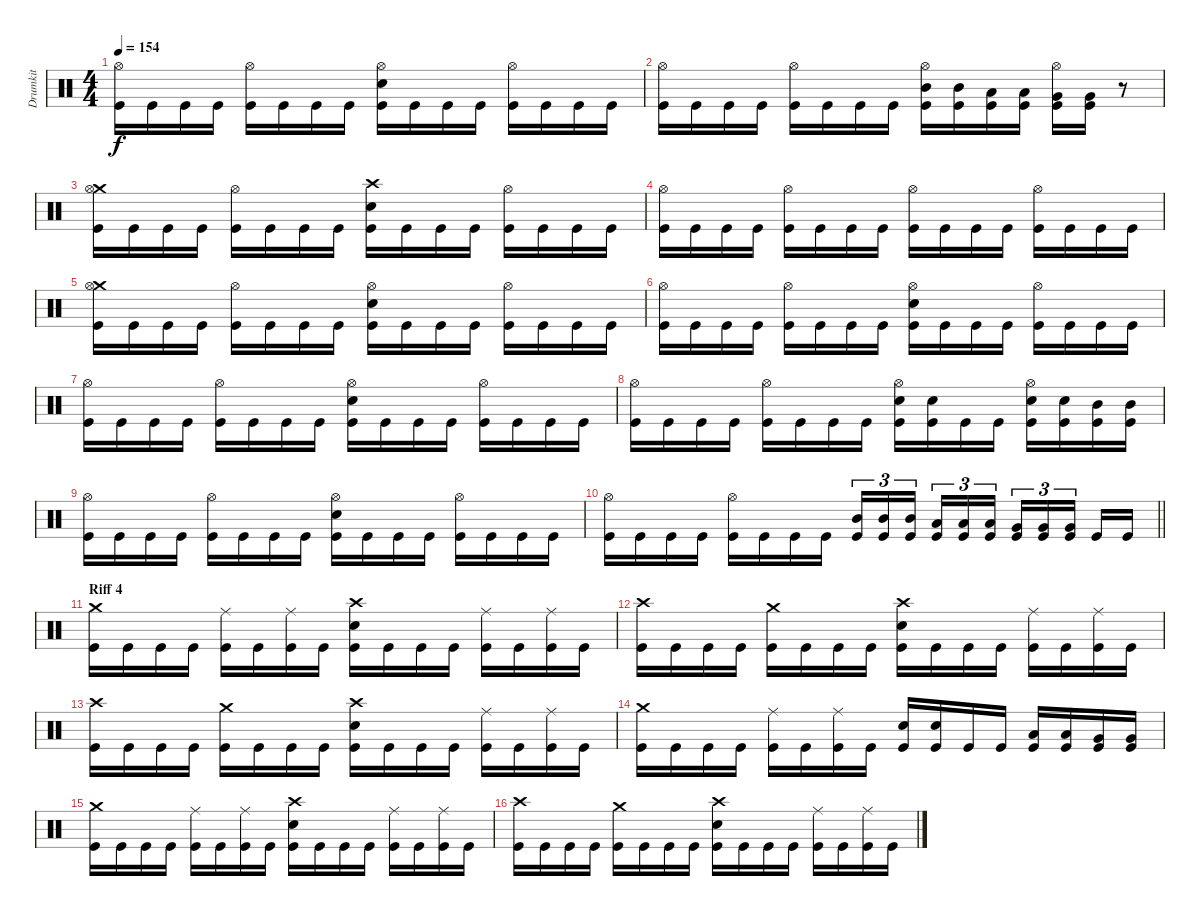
\track ("Drumkit" "Drumkit") {mute instrument percussion}
\staff {score}
\articulation defaults
\ts (4 4)
\tempo 154
\clef neutral
\ks c
("Hi-Hat (open)" "Kick (hit)").16{dy f} "Kick (hit)".16 "Kick (hit)".16 "Kick (hit)".16 ("Hi-Hat (open)" "Kick (hit)").16 "Kick (hit)".16 "Kick (hit)".16 "Kick (hit)".16 ("Hi-Hat (open)" "Snare (hit) 2" "Kick (hit)").16 "Kick (hit)".16 "Kick (hit)".16 "Kick (hit)".16 ("Hi-Hat (open)" "Kick (hit)").16 "Kick (hit)".16 "Kick (hit)".16 "Kick (hit)".16 |
("Hi-Hat (open)" "Kick (hit)").16 "Kick (hit)".16 "Kick (hit)".16 "Kick (hit)".16 ("Hi-Hat (open)" "Kick (hit)").16 "Kick (hit)".16 "Kick (hit)".16 "Kick (hit)".16 ("Hi-Hat (open)" "Mid Tom (hit)" "Kick (hit)").16 ("Mid Tom (hit)" "Kick (hit)").16 ("Low Tom (hit)" "Kick (hit)").16 ("Low Tom (hit)" "Kick (hit)").16 ("Hi-Hat (open)" "Very Low Tom (hit)" "Kick (hit)").16 ("Very Low Tom (hit)" "Kick (hit)").16 r.8 |
("Crash medium (hit)" "Hi-Hat (open)" "Kick (hit)").16 "Kick (hit)".16 "Kick (hit)".16 "Kick (hit)".16 ("Hi-Hat (open)" "Kick (hit)").16 "Kick (hit)".16 "Kick (hit)".16 "Kick (hit)".16 ("Crash high (hit)" "Snare (hit) 2" "Kick (hit)").16 "Kick (hit)".16 "Kick (hit)".16 "Kick (hit)".16 ("Hi-Hat (open)" "Kick (hit)").16 "Kick (hit)".16 "Kick (hit)".16 "Kick (hit)".16 |
("Hi-Hat (open)" "Kick (hit)").16 "Kick (hit)".16 "Kick (hit)".16 "Kick (hit)".16 ("Hi-Hat (open)" "Kick (hit)").16 "Kick (hit)".16 "Kick (hit)".16 "Kick (hit)".16 ("Hi-Hat (open)" "Kick (hit)").16 "Kick (hit)".16 "Kick (hit)".16 "Kick (hit)".16 ("Hi-Hat (open)" "Kick (hit)").16 "Kick (hit)".16 "Kick (hit)".16 "Kick (hit)".16 |
("Crash medium (hit)" "Hi-Hat (open)" "Kick (hit)").16 "Kick (hit)".16 "Kick (hit)".16 "Kick (hit)".16 ("Hi-Hat (open)" "Kick (hit)").16 "Kick (hit)".16 "Kick (hit)".16 "Kick (hit)".16 ("Hi-Hat (open)" "Snare (hit) 2" "Kick (hit)").16 "Kick (hit)".16 "Kick (hit)".16 "Kick (hit)".16 ("Hi-Hat (open)" "Kick (hit)").16 "Kick (hit)".16 "Kick (hit)".16 "Kick (hit)".16 |
("Hi-Hat (open)" "Kick (hit)").16 "Kick (hit)".16 "Kick (hit)".16 "Kick (hit)".16 ("Hi-Hat (open)" "Kick (hit)").16 "Kick (hit)".16 "Kick (hit)".16 "Kick (hit)".16 ("Hi-Hat (open)" "Snare (hit) 2" "Kick (hit)").16 "Kick (hit)".16 "Kick (hit)".16 "Kick (hit)".16 ("Hi-Hat (open)" "Kick (hit)").16 "Kick (hit)".16 "Kick (hit)".16 "Kick (hit)".16 |
("Hi-Hat (open)" "Kick (hit)").16 "Kick (hit)".16 "Kick (hit)".16 "Kick (hit)".16 ("Hi-Hat (open)" "Kick (hit)").16 "Kick (hit)".16 "Kick (hit)".16 "Kick (hit)".16 ("Hi-Hat (open)" "Snare (hit) 2" "Kick (hit)").16 "Kick (hit)".16 "Kick (hit)".16 "Kick (hit)".16 ("Hi-Hat (open)" "Kick (hit)").16 "Kick (hit)".16 "Kick (hit)".16 "Kick (hit)".16 |
("Hi-Hat (open)" "Kick (hit)").16 "Kick (hit)".16 "Kick (hit)".16 "Kick (hit)".16 ("Hi-Hat (open)" "Kick (hit)").16 "Kick (hit)".16 "Kick (hit)".16 "Kick (hit)".16 ("Hi-Hat (open)" "Snare (hit) 2" "Kick (hit)").16 ("Snare (hit) 2" "Kick (hit)").16 "Kick (hit)".16 "Kick (hit)".16 ("Hi-Hat (open)" "Snare (hit) 2" "Kick (hit)").16 ("Snare (hit) 2" "Kick (hit)").16 ("Mid Tom (hit)" "Kick (hit)").16 ("Mid Tom (hit)" "Kick (hit)").16 |
("Hi-Hat (open)" "Kick (hit)").16 "Kick (hit)".16 "Kick (hit)".16 "Kick (hit)".16 ("Hi-Hat (open)" "Kick (hit)").16 "Kick (hit)".16 "Kick (hit)".16 "Kick (hit)".16 ("Hi-Hat (open)" "Snare (hit) 2" "Kick (hit)").16 "Kick (hit)".16 "Kick (hit)".16 "Kick (hit)".16 ("Hi-Hat (open)" "Kick (hit)").16 "Kick (hit)".16 "Kick (hit)".16 "Kick (hit)".16 |
\barLineRight lightlight
("Hi-Hat (open)" "Kick (hit)").16 "Kick (hit)".16 "Kick (hit)".16 "Kick (hit)".16 ("Hi-Hat (open)" "Kick (hit)").16 "Kick (hit)".16 "Kick (hit)".16 "Kick (hit)".16 ("Mid Tom (hit)" "Kick (hit)").16{tu (3 2)} ("Mid Tom (hit)" "Kick (hit)").16{tu (3 2)} ("Mid Tom (hit)" "Kick (hit)").16{tu (3 2)} ("Low Tom (hit)" "Kick (hit)").16{tu (3 2)} ("Low Tom (hit)" "Kick (hit)").16{tu (3 2)} ("Low Tom (hit)" "Kick (hit)").16{tu (3 2)} ("Very Low Tom (hit)" "Kick (hit)").16{tu (3 2)} ("Very Low Tom (hit)" "Kick (hit)").16{tu (3 2)} ("Very Low Tom (hit)" "Kick (hit)").16{tu (3 2)} "Kick (hit)".16 "Kick (hit)".16 |
\section ("" "Riff 4")
("Crash medium (hit)" "Kick (hit)").16 "Kick (hit)".16 "Kick (hit)".16 "Kick (hit)".16 ("Ride (middle)" "Kick (hit)").16 "Kick (hit)".16 ("Ride (middle)" "Kick (hit)").16 "Kick (hit)".16 ("Crash high (hit)" "Snare (hit) 2" "Kick (hit)").16 "Kick (hit)".16 "Kick (hit)".16 "Kick (hit)".16 ("Ride (middle)" "Kick (hit)").16 "Kick (hit)".16 ("Ride (middle)" "Kick (hit)").16 "Kick (hit)".16 |
("Crash high (hit)" "Kick (hit)").16 "Kick (hit)".16 "Kick (hit)".16 "Kick (hit)".16 ("Crash medium (hit)" "Kick (hit)").16 "Kick (hit)".16 "Kick (hit)".16 "Kick (hit)".16 ("Crash high (hit)" "Snare (hit) 2" "Kick (hit)").16 "Kick (hit)".16 "Kick (hit)".16 "Kick (hit)".16 ("Ride (middle)" "Kick (hit)").16 "Kick (hit)".16 ("Ride (middle)" "Kick (hit)").16 "Kick (hit)".16 |
("Crash high (hit)" "Kick (hit)").16 "Kick (hit)".16 "Kick (hit)".16 "Kick (hit)".16 ("Crash medium (hit)" "Kick (hit)").16 "Kick (hit)".16 "Kick (hit)".16 "Kick (hit)".16 ("Crash high (hit)" "Snare (hit) 2" "Kick (hit)").16 "Kick (hit)".16 "Kick (hit)".16 "Kick (hit)".16 ("Ride (middle)" "Kick (hit)").16 "Kick (hit)".16 ("Ride (middle)" "Kick (hit)").16 "Kick (hit)".16 |
("Crash medium (hit)" "Kick (hit)").16 "Kick (hit)".16 "Kick (hit)".16 "Kick (hit)".16 ("Ride (middle)" "Kick (hit)").16 "Kick (hit)".16 ("Ride (middle)" "Kick (hit)").16 "Kick (hit)".16 ("Snare (hit) 2" "Kick (hit)").16 ("Snare (hit) 2" "Kick (hit)").16 "Kick (hit)".16 "Kick (hit)".16 ("Low Tom (hit)" "Kick (hit)").16 ("Low Tom (hit)" "Kick (hit)").16 ("Very Low Tom (hit)" "Kick (hit)").16 ("Very Low Tom (hit)" "Kick (hit)").16 |
("Crash medium (hit)" "Kick (hit)").16 "Kick (hit)".16 "Kick (hit)".16 "Kick (hit)".16 ("Ride (middle)" "Kick (hit)").16 "Kick (hit)".16 ("Ride (middle)" "Kick (hit)").16 "Kick (hit)".16 ("Crash high (hit)" "Snare (hit) 2" "Kick (hit)").16 "Kick (hit)".16 "Kick (hit)".16 "Kick (hit)".16 ("Ride (middle)" "Kick (hit)").16 "Kick (hit)".16 ("Ride (middle)" "Kick (hit)").16 "Kick (hit)".16 |
("Crash high (hit)" "Kick (hit)").16 "Kick (hit)".16 "Kick (hit)".16 "Kick (hit)".16 ("Crash medium (hit)" "Kick (hit)").16 "Kick (hit)".16 "Kick (hit)".16 "Kick (hit)".16 ("Crash high (hit)" "Snare (hit) 2" "Kick (hit)").16 "Kick (hit)".16 "Kick (hit)".16 "Kick (hit)".16 ("Ride (middle)" "Kick (hit)").16 "Kick (hit)".16 ("Ride (middle)" "Kick (hit)").16 "Kick (hit)".16
